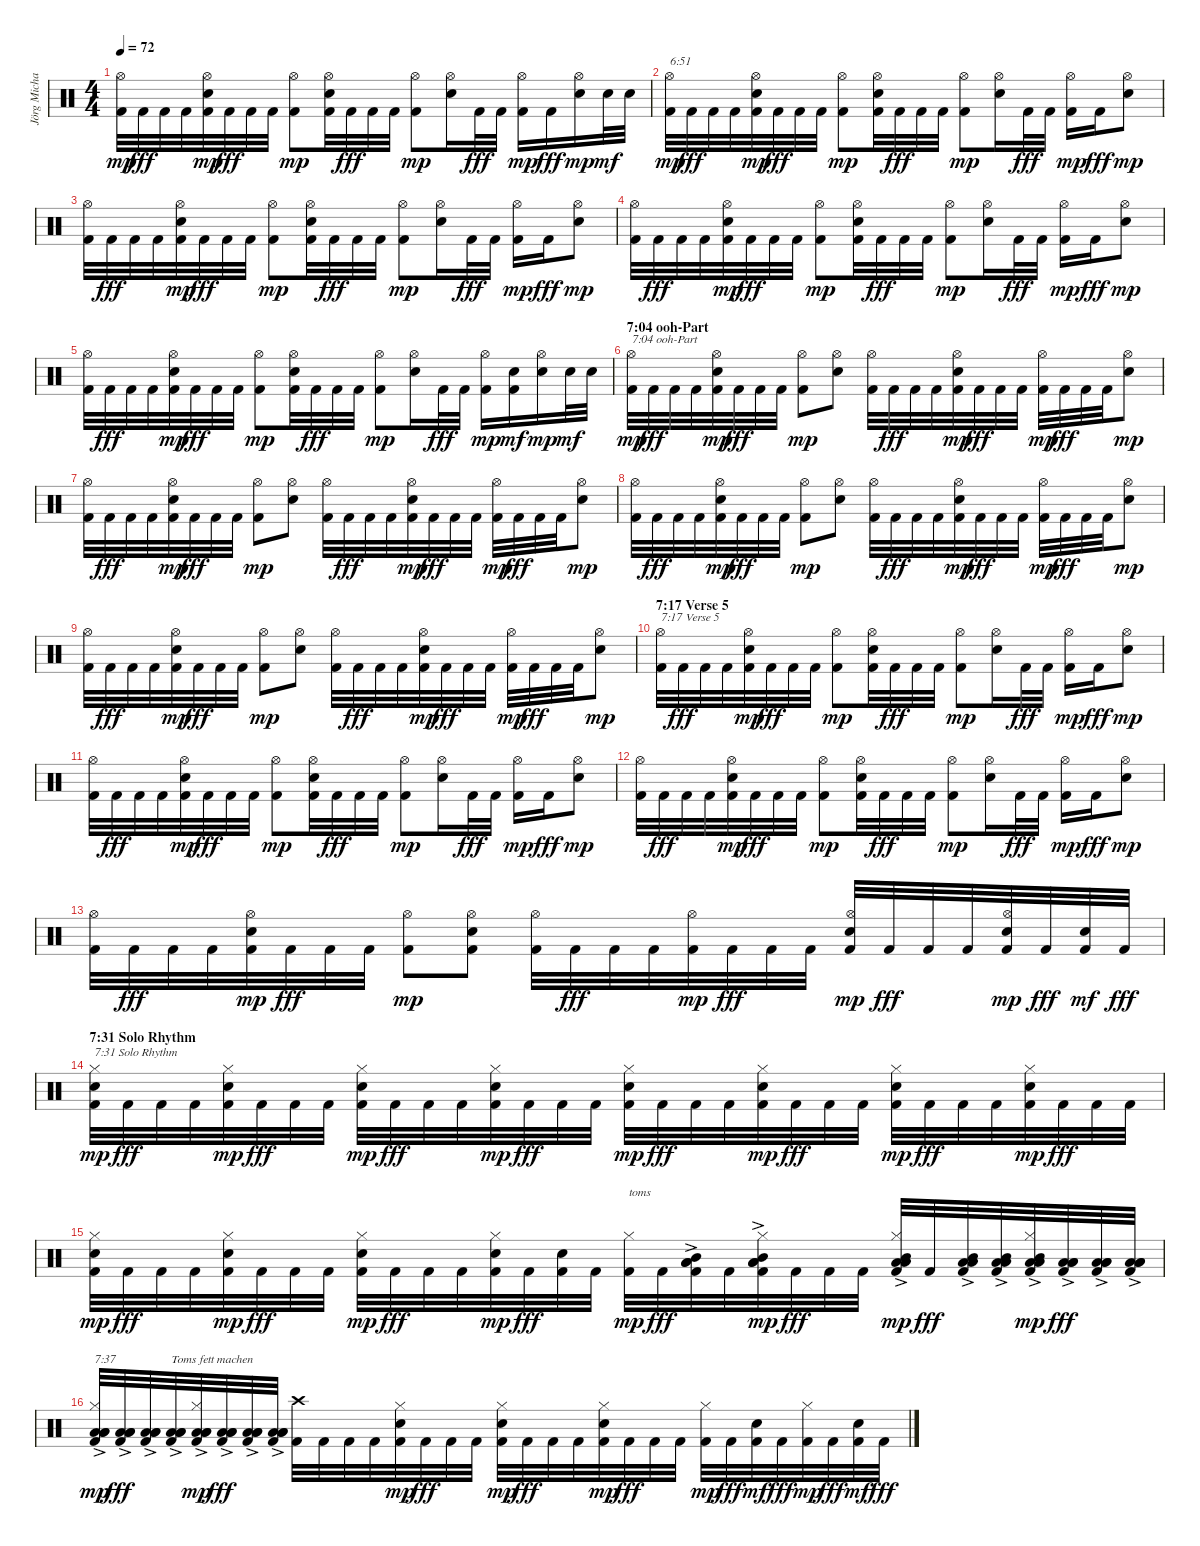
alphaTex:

\track ("Jörg Michael" "Jörg Micha") {instrument percussion}
\staff {score}
\articulation defaults
\ts (4 4)
\tempo 72
\clef neutral
\ks c
("Kick (hit) 2" "Hi-Hat (open)").32{dy mp} "Kick (hit) 2".32{dy fff} "Kick (hit) 2".32 "Kick (hit) 2".32 ("Kick (hit) 2" "Snare (hit) 2" "Hi-Hat (open)").32{dy mp} "Kick (hit) 2".32{dy fff} "Kick (hit) 2".32 "Kick (hit) 2".32 ("Kick (hit) 2" "Hi-Hat (open)").8{dy mp} ("Kick (hit) 2" "Snare (hit) 2" "Hi-Hat (open)").32 "Kick (hit) 2".32{dy fff} "Kick (hit) 2".32 "Kick (hit) 2".32 ("Kick (hit) 2" "Hi-Hat (open)").8{dy mp} ("Snare (hit) 2" "Hi-Hat (open)").16 "Kick (hit) 2".32{dy fff} "Kick (hit) 2".32 ("Kick (hit) 2" "Hi-Hat (open)").16{dy mp} "Kick (hit) 2".16{dy fff} ("Snare (hit) 2" "Hi-Hat (open)").16{dy mp} "Snare (hit) 2".32{dy mf} "Snare (hit) 2".32 |
("Kick (hit) 2" "Hi-Hat (open)").32{txt "6:51" dy mp} "Kick (hit) 2".32{dy fff} "Kick (hit) 2".32 "Kick (hit) 2".32 ("Kick (hit) 2" "Snare (hit) 2" "Hi-Hat (open)").32{dy mp} "Kick (hit) 2".32{dy fff} "Kick (hit) 2".32 "Kick (hit) 2".32 ("Kick (hit) 2" "Hi-Hat (open)").8{dy mp} ("Kick (hit) 2" "Snare (hit) 2" "Hi-Hat (open)").32 "Kick (hit) 2".32{dy fff} "Kick (hit) 2".32 "Kick (hit) 2".32 ("Kick (hit) 2" "Hi-Hat (open)").8{dy mp} ("Snare (hit) 2" "Hi-Hat (open)").16 "Kick (hit) 2".32{dy fff} "Kick (hit) 2".32 ("Kick (hit) 2" "Hi-Hat (open)").16{dy mp} "Kick (hit) 2".16{dy fff} ("Snare (hit) 2" "Hi-Hat (open)").8{dy mp} |
("Kick (hit) 2" "Hi-Hat (open)").32 "Kick (hit) 2".32{dy fff} "Kick (hit) 2".32 "Kick (hit) 2".32 ("Kick (hit) 2" "Snare (hit) 2" "Hi-Hat (open)").32{dy mp} "Kick (hit) 2".32{dy fff} "Kick (hit) 2".32 "Kick (hit) 2".32 ("Kick (hit) 2" "Hi-Hat (open)").8{dy mp} ("Kick (hit) 2" "Snare (hit) 2" "Hi-Hat (open)").32 "Kick (hit) 2".32{dy fff} "Kick (hit) 2".32 "Kick (hit) 2".32 ("Kick (hit) 2" "Hi-Hat (open)").8{dy mp} ("Snare (hit) 2" "Hi-Hat (open)").16 "Kick (hit) 2".32{dy fff} "Kick (hit) 2".32 ("Kick (hit) 2" "Hi-Hat (open)").16{dy mp} "Kick (hit) 2".16{dy fff} ("Snare (hit) 2" "Hi-Hat (open)").8{dy mp} |
("Kick (hit) 2" "Hi-Hat (open)").32 "Kick (hit) 2".32{dy fff} "Kick (hit) 2".32 "Kick (hit) 2".32 ("Kick (hit) 2" "Snare (hit) 2" "Hi-Hat (open)").32{dy mp} "Kick (hit) 2".32{dy fff} "Kick (hit) 2".32 "Kick (hit) 2".32 ("Kick (hit) 2" "Hi-Hat (open)").8{dy mp} ("Kick (hit) 2" "Snare (hit) 2" "Hi-Hat (open)").32 "Kick (hit) 2".32{dy fff} "Kick (hit) 2".32 "Kick (hit) 2".32 ("Kick (hit) 2" "Hi-Hat (open)").8{dy mp} ("Snare (hit) 2" "Hi-Hat (open)").16 "Kick (hit) 2".32{dy fff} "Kick (hit) 2".32 ("Kick (hit) 2" "Hi-Hat (open)").16{dy mp} "Kick (hit) 2".16{dy fff} ("Snare (hit) 2" "Hi-Hat (open)").8{dy mp} |
("Kick (hit) 2" "Hi-Hat (open)").32 "Kick (hit) 2".32{dy fff} "Kick (hit) 2".32 "Kick (hit) 2".32 ("Kick (hit) 2" "Snare (hit) 2" "Hi-Hat (open)").32{dy mp} "Kick (hit) 2".32{dy fff} "Kick (hit) 2".32 "Kick (hit) 2".32 ("Kick (hit) 2" "Hi-Hat (open)").8{dy mp} ("Kick (hit) 2" "Snare (hit) 2" "Hi-Hat (open)").32 "Kick (hit) 2".32{dy fff} "Kick (hit) 2".32 "Kick (hit) 2".32 ("Kick (hit) 2" "Hi-Hat (open)").8{dy mp} ("Snare (hit) 2" "Hi-Hat (open)").16 "Kick (hit) 2".32{dy fff} "Kick (hit) 2".32 ("Kick (hit) 2" "Hi-Hat (open)").16{dy mp} ("Kick (hit) 2" "Snare (hit) 2").16{dy mf} ("Snare (hit) 2" "Hi-Hat (open)").16{dy mp} "Snare (hit) 2".32{dy mf} "Snare (hit) 2".32 |
\section ("" "7:04 ooh-Part")
("Kick (hit) 2" "Hi-Hat (open)").32{txt "7:04 ooh-Part" dy mp} "Kick (hit) 2".32{dy fff} "Kick (hit) 2".32 "Kick (hit) 2".32 ("Kick (hit) 2" "Snare (hit) 2" "Hi-Hat (open)").32{dy mp} "Kick (hit) 2".32{dy fff} "Kick (hit) 2".32 "Kick (hit) 2".32 ("Kick (hit) 2" "Hi-Hat (open)").8{dy mp} ("Snare (hit) 2" "Hi-Hat (open)").8 ("Kick (hit) 2" "Hi-Hat (open)").32 "Kick (hit) 2".32{dy fff} "Kick (hit) 2".32 "Kick (hit) 2".32 ("Kick (hit) 2" "Snare (hit) 2" "Hi-Hat (open)").32{dy mp} "Kick (hit) 2".32{dy fff} "Kick (hit) 2".32 "Kick (hit) 2".32 ("Kick (hit) 2" "Hi-Hat (open)").32{dy mp} "Kick (hit) 2".32{dy fff} "Kick (hit) 2".32 "Kick (hit) 2".32 ("Snare (hit) 2" "Hi-Hat (open)").8{dy mp} |
("Kick (hit) 2" "Hi-Hat (open)").32 "Kick (hit) 2".32{dy fff} "Kick (hit) 2".32 "Kick (hit) 2".32 ("Kick (hit) 2" "Snare (hit) 2" "Hi-Hat (open)").32{dy mp} "Kick (hit) 2".32{dy fff} "Kick (hit) 2".32 "Kick (hit) 2".32 ("Kick (hit) 2" "Hi-Hat (open)").8{dy mp} ("Snare (hit) 2" "Hi-Hat (open)").8 ("Kick (hit) 2" "Hi-Hat (open)").32 "Kick (hit) 2".32{dy fff} "Kick (hit) 2".32 "Kick (hit) 2".32 ("Kick (hit) 2" "Snare (hit) 2" "Hi-Hat (open)").32{dy mp} "Kick (hit) 2".32{dy fff} "Kick (hit) 2".32 "Kick (hit) 2".32 ("Kick (hit) 2" "Hi-Hat (open)").32{dy mp} "Kick (hit) 2".32{dy fff} "Kick (hit) 2".32 "Kick (hit) 2".32 ("Snare (hit) 2" "Hi-Hat (open)").8{dy mp} |
("Kick (hit) 2" "Hi-Hat (open)").32 "Kick (hit) 2".32{dy fff} "Kick (hit) 2".32 "Kick (hit) 2".32 ("Kick (hit) 2" "Snare (hit) 2" "Hi-Hat (open)").32{dy mp} "Kick (hit) 2".32{dy fff} "Kick (hit) 2".32 "Kick (hit) 2".32 ("Kick (hit) 2" "Hi-Hat (open)").8{dy mp} ("Snare (hit) 2" "Hi-Hat (open)").8 ("Kick (hit) 2" "Hi-Hat (open)").32 "Kick (hit) 2".32{dy fff} "Kick (hit) 2".32 "Kick (hit) 2".32 ("Kick (hit) 2" "Snare (hit) 2" "Hi-Hat (open)").32{dy mp} "Kick (hit) 2".32{dy fff} "Kick (hit) 2".32 "Kick (hit) 2".32 ("Kick (hit) 2" "Hi-Hat (open)").32{dy mp} "Kick (hit) 2".32{dy fff} "Kick (hit) 2".32 "Kick (hit) 2".32 ("Snare (hit) 2" "Hi-Hat (open)").8{dy mp} |
("Kick (hit) 2" "Hi-Hat (open)").32 "Kick (hit) 2".32{dy fff} "Kick (hit) 2".32 "Kick (hit) 2".32 ("Kick (hit) 2" "Snare (hit) 2" "Hi-Hat (open)").32{dy mp} "Kick (hit) 2".32{dy fff} "Kick (hit) 2".32 "Kick (hit) 2".32 ("Kick (hit) 2" "Hi-Hat (open)").8{dy mp} ("Snare (hit) 2" "Hi-Hat (open)").8 ("Kick (hit) 2" "Hi-Hat (open)").32 "Kick (hit) 2".32{dy fff} "Kick (hit) 2".32 "Kick (hit) 2".32 ("Kick (hit) 2" "Snare (hit) 2" "Hi-Hat (open)").32{dy mp} "Kick (hit) 2".32{dy fff} "Kick (hit) 2".32 "Kick (hit) 2".32 ("Kick (hit) 2" "Hi-Hat (open)").32{dy mp} "Kick (hit) 2".32{dy fff} "Kick (hit) 2".32 "Kick (hit) 2".32 ("Snare (hit) 2" "Hi-Hat (open)").8{dy mp} |
\section ("" "7:17 Verse 5")
("Kick (hit) 2" "Hi-Hat (open)").32{txt "7:17 Verse 5"} "Kick (hit) 2".32{dy fff} "Kick (hit) 2".32 "Kick (hit) 2".32 ("Kick (hit) 2" "Snare (hit) 2" "Hi-Hat (open)").32{dy mp} "Kick (hit) 2".32{dy fff} "Kick (hit) 2".32 "Kick (hit) 2".32 ("Kick (hit) 2" "Hi-Hat (open)").8{dy mp} ("Kick (hit) 2" "Snare (hit) 2" "Hi-Hat (open)").32 "Kick (hit) 2".32{dy fff} "Kick (hit) 2".32 "Kick (hit) 2".32 ("Kick (hit) 2" "Hi-Hat (open)").8{dy mp} ("Snare (hit) 2" "Hi-Hat (open)").16 "Kick (hit) 2".32{dy fff} "Kick (hit) 2".32 ("Kick (hit) 2" "Hi-Hat (open)").16{dy mp} "Kick (hit) 2".16{dy fff} ("Snare (hit) 2" "Hi-Hat (open)").8{dy mp} |
("Kick (hit) 2" "Hi-Hat (open)").32 "Kick (hit) 2".32{dy fff} "Kick (hit) 2".32 "Kick (hit) 2".32 ("Kick (hit) 2" "Snare (hit) 2" "Hi-Hat (open)").32{dy mp} "Kick (hit) 2".32{dy fff} "Kick (hit) 2".32 "Kick (hit) 2".32 ("Kick (hit) 2" "Hi-Hat (open)").8{dy mp} ("Kick (hit) 2" "Snare (hit) 2" "Hi-Hat (open)").32 "Kick (hit) 2".32{dy fff} "Kick (hit) 2".32 "Kick (hit) 2".32 ("Kick (hit) 2" "Hi-Hat (open)").8{dy mp} ("Snare (hit) 2" "Hi-Hat (open)").16 "Kick (hit) 2".32{dy fff} "Kick (hit) 2".32 ("Kick (hit) 2" "Hi-Hat (open)").16{dy mp} "Kick (hit) 2".16{dy fff} ("Snare (hit) 2" "Hi-Hat (open)").8{dy mp} |
("Kick (hit) 2" "Hi-Hat (open)").32 "Kick (hit) 2".32{dy fff} "Kick (hit) 2".32 "Kick (hit) 2".32 ("Kick (hit) 2" "Snare (hit) 2" "Hi-Hat (open)").32{dy mp} "Kick (hit) 2".32{dy fff} "Kick (hit) 2".32 "Kick (hit) 2".32 ("Kick (hit) 2" "Hi-Hat (open)").8{dy mp} ("Kick (hit) 2" "Snare (hit) 2" "Hi-Hat (open)").32 "Kick (hit) 2".32{dy fff} "Kick (hit) 2".32 "Kick (hit) 2".32 ("Kick (hit) 2" "Hi-Hat (open)").8{dy mp} ("Snare (hit) 2" "Hi-Hat (open)").16 "Kick (hit) 2".32{dy fff} "Kick (hit) 2".32 ("Kick (hit) 2" "Hi-Hat (open)").16{dy mp} "Kick (hit) 2".16{dy fff} ("Snare (hit) 2" "Hi-Hat (open)").8{dy mp} |
("Kick (hit) 2" "Hi-Hat (open)").32 "Kick (hit) 2".32{dy fff} "Kick (hit) 2".32 "Kick (hit) 2".32 ("Kick (hit) 2" "Snare (hit) 2" "Hi-Hat (open)").32{dy mp} "Kick (hit) 2".32{dy fff} "Kick (hit) 2".32 "Kick (hit) 2".32 ("Kick (hit) 2" "Hi-Hat (open)").8{dy mp} ("Kick (hit) 2" "Snare (hit) 2" "Hi-Hat (open)").8 ("Kick (hit) 2" "Hi-Hat (open)").32 "Kick (hit) 2".32{dy fff} "Kick (hit) 2".32 "Kick (hit) 2".32 ("Kick (hit) 2" "Hi-Hat (open)").32{dy mp} "Kick (hit) 2".32{dy fff} "Kick (hit) 2".32 "Kick (hit) 2".32 ("Kick (hit) 2" "Snare (hit) 2" "Hi-Hat (open)").32{dy mp} "Kick (hit) 2".32{dy fff} "Kick (hit) 2".32 "Kick (hit) 2".32 ("Kick (hit) 2" "Snare (hit) 2" "Hi-Hat (open)").32{dy mp} "Kick (hit) 2".32{dy fff} ("Kick (hit) 2" "Snare (hit) 2").32{dy mf} "Kick (hit) 2".32{dy fff} |
\section ("" "7:31 Solo Rhythm")
("Kick (hit) 2" "Snare (hit) 2" "Hi-Hat (closed)").32{txt "7:31 Solo Rhythm" dy mp} "Kick (hit) 2".32{dy fff} "Kick (hit) 2".32 "Kick (hit) 2".32 ("Kick (hit) 2" "Snare (hit) 2" "Hi-Hat (closed)").32{dy mp} "Kick (hit) 2".32{dy fff} "Kick (hit) 2".32 "Kick (hit) 2".32 ("Kick (hit) 2" "Snare (hit) 2" "Hi-Hat (closed)").32{dy mp} "Kick (hit) 2".32{dy fff} "Kick (hit) 2".32 "Kick (hit) 2".32 ("Kick (hit) 2" "Snare (hit) 2" "Hi-Hat (closed)").32{dy mp} "Kick (hit) 2".32{dy fff} "Kick (hit) 2".32 "Kick (hit) 2".32 ("Kick (hit) 2" "Snare (hit) 2" "Hi-Hat (closed)").32{dy mp} "Kick (hit) 2".32{dy fff} "Kick (hit) 2".32 "Kick (hit) 2".32 ("Kick (hit) 2" "Snare (hit) 2" "Hi-Hat (closed)").32{dy mp} "Kick (hit) 2".32{dy fff} "Kick (hit) 2".32 "Kick (hit) 2".32 ("Kick (hit) 2" "Snare (hit) 2" "Hi-Hat (closed)").32{dy mp} "Kick (hit) 2".32{dy fff} "Kick (hit) 2".32 "Kick (hit) 2".32 ("Kick (hit) 2" "Snare (hit) 2" "Hi-Hat (closed)").32{dy mp} "Kick (hit) 2".32{dy fff} "Kick (hit) 2".32 "Kick (hit) 2".32 |
("Kick (hit) 2" "Snare (hit) 2" "Hi-Hat (closed)").32{dy mp} "Kick (hit) 2".32{dy fff} "Kick (hit) 2".32 "Kick (hit) 2".32 ("Kick (hit) 2" "Snare (hit) 2" "Hi-Hat (closed)").32{dy mp} "Kick (hit) 2".32{dy fff} "Kick (hit) 2".32 "Kick (hit) 2".32 ("Kick (hit) 2" "Snare (hit) 2" "Hi-Hat (closed)").32{dy mp} "Kick (hit) 2".32{dy fff} "Kick (hit) 2".32 "Kick (hit) 2".32 ("Kick (hit) 2" "Snare (hit) 2" "Hi-Hat (closed)").32{dy mp} "Kick (hit) 2".32{dy fff} ("Kick (hit) 2" "Snare (hit) 2").32 "Kick (hit) 2".32 ("Kick (hit) 2" "Hi-Hat (closed)").32{txt "toms" dy mp} "Kick (hit) 2".32{dy fff} ("Kick (hit) 2" "Low Tom (hit)"{ac} "Low Tom (hit)"{ac} "Mid Tom (hit)"{ac}).32 "Kick (hit) 2".32 ("Kick (hit) 2" "Low Tom (hit)"{ac} "Low Tom (hit)"{ac} "Mid Tom (hit)"{ac} "Hi-Hat (closed)").32{dy mp} "Kick (hit) 2".32{dy fff} "Kick (hit) 2".32 "Kick (hit) 2".32 ("Kick (hit) 2" "Low Tom (hit)"{ac} "Low Tom (hit)"{ac} "Mid Tom (hit)"{ac} "Hi-Hat (closed)").32{dy mp} "Kick (hit) 2".32{dy fff} ("Kick (hit) 2" "Low Tom (hit)"{ac} "Low Tom (hit)"{ac} "Mid Tom (hit)"{ac}).32 ("Kick (hit) 2" "Low Tom (hit)"{ac} "Low Tom (hit)"{ac} "Mid Tom (hit)"{ac}).32 ("Kick (hit) 2" "Low Tom (hit)"{ac} "Low Tom (hit)"{ac} "Mid Tom (hit)"{ac} "Hi-Hat (closed)").32{dy mp} ("Kick (hit) 2" "Low Tom (hit)"{ac} "Low Tom (hit)"{ac} "Low Tom (hit)").32{dy fff} ("Kick (hit) 2" "Low Tom (hit)"{ac} "Low Tom (hit)"{ac} "Low Tom (hit)"{ac}).32 ("Kick (hit) 2" "Low Tom (hit)"{ac} "Low Tom (hit)"{ac} "Low Tom (hit)"{ac}).32 |
("Kick (hit) 2" "Low Tom (hit)"{ac} "Low Tom (hit)"{ac} "Low Tom (hit)"{ac} "Hi-Hat (closed)").32{txt "7:37" dy mp} ("Kick (hit) 2" "Low Tom (hit)"{ac} "Low Tom (hit)"{ac} "Low Tom (hit)"{ac}).32{dy fff} ("Kick (hit) 2" "Low Tom (hit)"{ac} "Low Tom (hit)"{ac} "Low Tom (hit)"{ac}).32 ("Kick (hit) 2" "Low Tom (hit)"{ac} "Low Tom (hit)"{ac} "Low Tom (hit)"{ac}).32{txt "Toms fett machen"} ("Kick (hit) 2" "Low Tom (hit)"{ac} "Low Tom (hit)"{ac} "Low Tom (hit)"{ac} "Hi-Hat (closed)").32{dy mp} ("Kick (hit) 2" "Low Tom (hit)"{ac} "Low Tom (hit)"{ac} "Low Tom (hit)"{ac}).32{dy fff} ("Kick (hit) 2" "Low Tom (hit)" "Low Tom (hit)"{ac} "Low Tom (hit)"{ac}).32 ("Kick (hit) 2" "Low Tom (hit)"{ac} "Low Tom (hit)"{ac} "Low Tom (hit)"{ac}).32 ("Kick (hit) 2" "Crash high (hit)").32 "Kick (hit) 2".32 "Kick (hit) 2".32 "Kick (hit) 2".32 ("Kick (hit) 2" "Snare (hit) 2" "Hi-Hat (closed)").32{dy mp} "Kick (hit) 2".32{dy fff} "Kick (hit) 2".32 "Kick (hit) 2".32 ("Kick (hit) 2" "Snare (hit) 2" "Hi-Hat (closed)").32{dy mp} "Kick (hit) 2".32{dy fff} "Kick (hit) 2".32 "Kick (hit) 2".32 ("Kick (hit) 2" "Snare (hit) 2" "Hi-Hat (closed)").32{dy mp} "Kick (hit) 2".32{dy fff} "Kick (hit) 2".32 "Kick (hit) 2".32 ("Kick (hit) 2" "Hi-Hat (closed)").32{dy mp} "Kick (hit) 2".32{dy fff} ("Kick (hit) 2" "Snare (hit) 2").32{dy mf} "Kick (hit) 2".32{dy fff} ("Kick (hit) 2" "Hi-Hat (closed)").32{dy mp} "Kick (hit) 2".32{dy fff} ("Kick (hit) 2" "Snare (hit) 2").32{dy mf} "Kick (hit) 2".32{dy fff}
